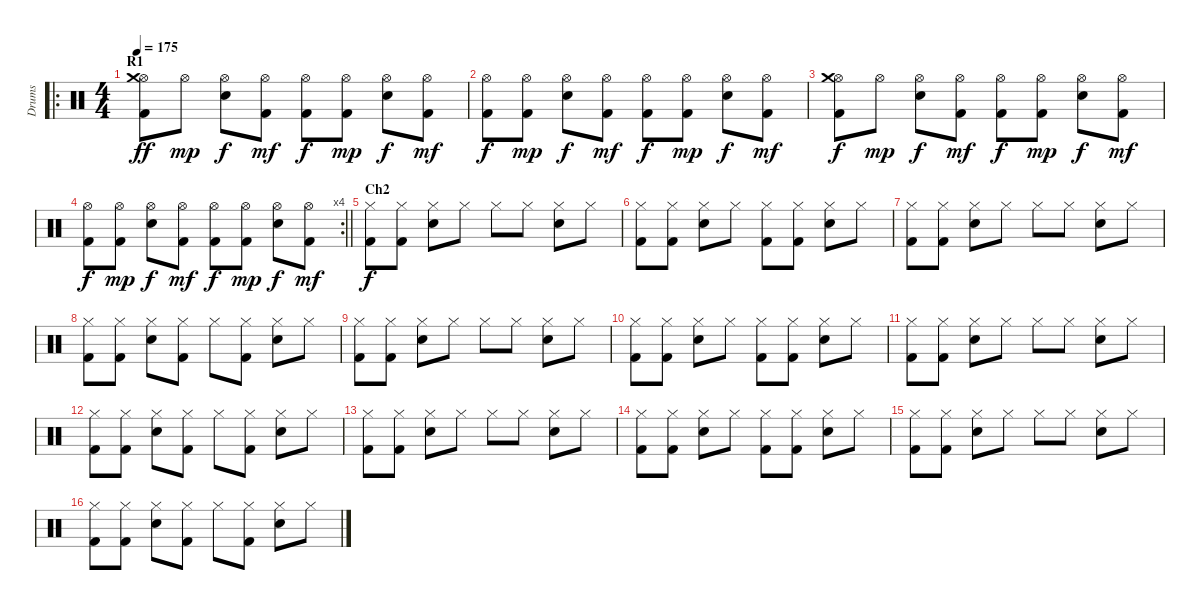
\track ("Drums" "Drums") {instrument percussion}
\staff {score}
\articulation defaults
\ro
\ts (4 4)
\section ("" "R1")
\tempo 175
\clef neutral
\ks c
("Hi-Hat (open)" "Crash medium (hit)" "Kick (hit) 2").8{dy ff} "Hi-Hat (open)".8{dy mp} ("Hi-Hat (open)" "Electric Snare (hit)").8{dy f} ("Hi-Hat (open)" "Kick (hit) 2").8{dy mf} ("Hi-Hat (open)" "Kick (hit) 2").8{dy f} ("Hi-Hat (open)" "Kick (hit) 2").8{dy mp} ("Hi-Hat (open)" "Electric Snare (hit)").8{dy f} ("Hi-Hat (open)" "Kick (hit) 2").8{dy mf} |
("Hi-Hat (open)" "Kick (hit) 2").8{dy f} ("Hi-Hat (open)" "Kick (hit) 2").8{dy mp} ("Hi-Hat (open)" "Electric Snare (hit)").8{dy f} ("Hi-Hat (open)" "Kick (hit) 2").8{dy mf} ("Hi-Hat (open)" "Kick (hit) 2").8{dy f} ("Hi-Hat (open)" "Kick (hit) 2").8{dy mp} ("Hi-Hat (open)" "Electric Snare (hit)").8{dy f} ("Hi-Hat (open)" "Kick (hit) 2").8{dy mf} |
("Hi-Hat (open)" "Crash medium (hit)" "Kick (hit) 2").8{dy f} "Hi-Hat (open)".8{dy mp} ("Hi-Hat (open)" "Electric Snare (hit)").8{dy f} ("Hi-Hat (open)" "Kick (hit) 2").8{dy mf} ("Hi-Hat (open)" "Kick (hit) 2").8{dy f} ("Hi-Hat (open)" "Kick (hit) 2").8{dy mp} ("Hi-Hat (open)" "Electric Snare (hit)").8{dy f} ("Hi-Hat (open)" "Kick (hit) 2").8{dy mf} |
\rc 4
\barLineRight lightlight
("Hi-Hat (open)" "Kick (hit) 2").8{dy f} ("Hi-Hat (open)" "Kick (hit) 2").8{dy mp} ("Hi-Hat (open)" "Electric Snare (hit)").8{dy f} ("Hi-Hat (open)" "Kick (hit) 2").8{dy mf} ("Hi-Hat (open)" "Kick (hit) 2").8{dy f} ("Hi-Hat (open)" "Kick (hit) 2").8{dy mp} ("Hi-Hat (open)" "Electric Snare (hit)").8{dy f} ("Hi-Hat (open)" "Kick (hit) 2").8{dy mf} |
\section ("" "Ch2")
("Hi-Hat (closed)" "Kick (hit) 2").8{dy f} ("Hi-Hat (closed)" "Kick (hit) 2").8 ("Hi-Hat (closed)" "Electric Snare (hit)").8 "Hi-Hat (closed)".8 "Hi-Hat (closed)".8 "Hi-Hat (closed)".8 ("Hi-Hat (closed)" "Electric Snare (hit)").8 "Hi-Hat (closed)".8 |
("Hi-Hat (closed)" "Kick (hit) 2").8 ("Hi-Hat (closed)" "Kick (hit) 2").8 ("Hi-Hat (closed)" "Electric Snare (hit)").8 "Hi-Hat (closed)".8 ("Hi-Hat (closed)" "Kick (hit) 2").8 ("Hi-Hat (closed)" "Kick (hit) 2").8 ("Hi-Hat (closed)" "Electric Snare (hit)").8 "Hi-Hat (closed)".8 |
("Hi-Hat (closed)" "Kick (hit) 2").8 ("Hi-Hat (closed)" "Kick (hit) 2").8 ("Hi-Hat (closed)" "Electric Snare (hit)").8 "Hi-Hat (closed)".8 "Hi-Hat (closed)".8 "Hi-Hat (closed)".8 ("Hi-Hat (closed)" "Electric Snare (hit)").8 "Hi-Hat (closed)".8 |
("Hi-Hat (closed)" "Kick (hit) 2").8 ("Hi-Hat (closed)" "Kick (hit) 2").8 ("Hi-Hat (closed)" "Electric Snare (hit)").8 ("Hi-Hat (closed)" "Kick (hit) 2").8 "Hi-Hat (closed)".8 ("Hi-Hat (closed)" "Kick (hit) 2").8 ("Hi-Hat (closed)" "Electric Snare (hit)").8 "Hi-Hat (closed)".8 |
("Hi-Hat (closed)" "Kick (hit) 2").8 ("Hi-Hat (closed)" "Kick (hit) 2").8 ("Hi-Hat (closed)" "Electric Snare (hit)").8 "Hi-Hat (closed)".8 "Hi-Hat (closed)".8 "Hi-Hat (closed)".8 ("Hi-Hat (closed)" "Electric Snare (hit)").8 "Hi-Hat (closed)".8 |
("Hi-Hat (closed)" "Kick (hit) 2").8 ("Hi-Hat (closed)" "Kick (hit) 2").8 ("Hi-Hat (closed)" "Electric Snare (hit)").8 "Hi-Hat (closed)".8 ("Hi-Hat (closed)" "Kick (hit) 2").8 ("Hi-Hat (closed)" "Kick (hit) 2").8 ("Hi-Hat (closed)" "Electric Snare (hit)").8 "Hi-Hat (closed)".8 |
("Hi-Hat (closed)" "Kick (hit) 2").8 ("Hi-Hat (closed)" "Kick (hit) 2").8 ("Hi-Hat (closed)" "Electric Snare (hit)").8 "Hi-Hat (closed)".8 "Hi-Hat (closed)".8 "Hi-Hat (closed)".8 ("Hi-Hat (closed)" "Electric Snare (hit)").8 "Hi-Hat (closed)".8 |
("Hi-Hat (closed)" "Kick (hit) 2").8 ("Hi-Hat (closed)" "Kick (hit) 2").8 ("Hi-Hat (closed)" "Electric Snare (hit)").8 ("Hi-Hat (closed)" "Kick (hit) 2").8 "Hi-Hat (closed)".8 ("Hi-Hat (closed)" "Kick (hit) 2").8 ("Hi-Hat (closed)" "Electric Snare (hit)").8 "Hi-Hat (closed)".8 |
("Hi-Hat (closed)" "Kick (hit) 2").8 ("Hi-Hat (closed)" "Kick (hit) 2").8 ("Hi-Hat (closed)" "Electric Snare (hit)").8 "Hi-Hat (closed)".8 "Hi-Hat (closed)".8 "Hi-Hat (closed)".8 ("Hi-Hat (closed)" "Electric Snare (hit)").8 "Hi-Hat (closed)".8 |
("Hi-Hat (closed)" "Kick (hit) 2").8 ("Hi-Hat (closed)" "Kick (hit) 2").8 ("Hi-Hat (closed)" "Electric Snare (hit)").8 "Hi-Hat (closed)".8 ("Hi-Hat (closed)" "Kick (hit) 2").8 ("Hi-Hat (closed)" "Kick (hit) 2").8 ("Hi-Hat (closed)" "Electric Snare (hit)").8 "Hi-Hat (closed)".8 |
("Hi-Hat (closed)" "Kick (hit) 2").8 ("Hi-Hat (closed)" "Kick (hit) 2").8 ("Hi-Hat (closed)" "Electric Snare (hit)").8 "Hi-Hat (closed)".8 "Hi-Hat (closed)".8 "Hi-Hat (closed)".8 ("Hi-Hat (closed)" "Electric Snare (hit)").8 "Hi-Hat (closed)".8 |
("Hi-Hat (closed)" "Kick (hit) 2").8 ("Hi-Hat (closed)" "Kick (hit) 2").8 ("Hi-Hat (closed)" "Electric Snare (hit)").8 ("Hi-Hat (closed)" "Kick (hit) 2").8 "Hi-Hat (closed)".8 ("Hi-Hat (closed)" "Kick (hit) 2").8 ("Hi-Hat (closed)" "Electric Snare (hit)").8 "Hi-Hat (closed)".8
